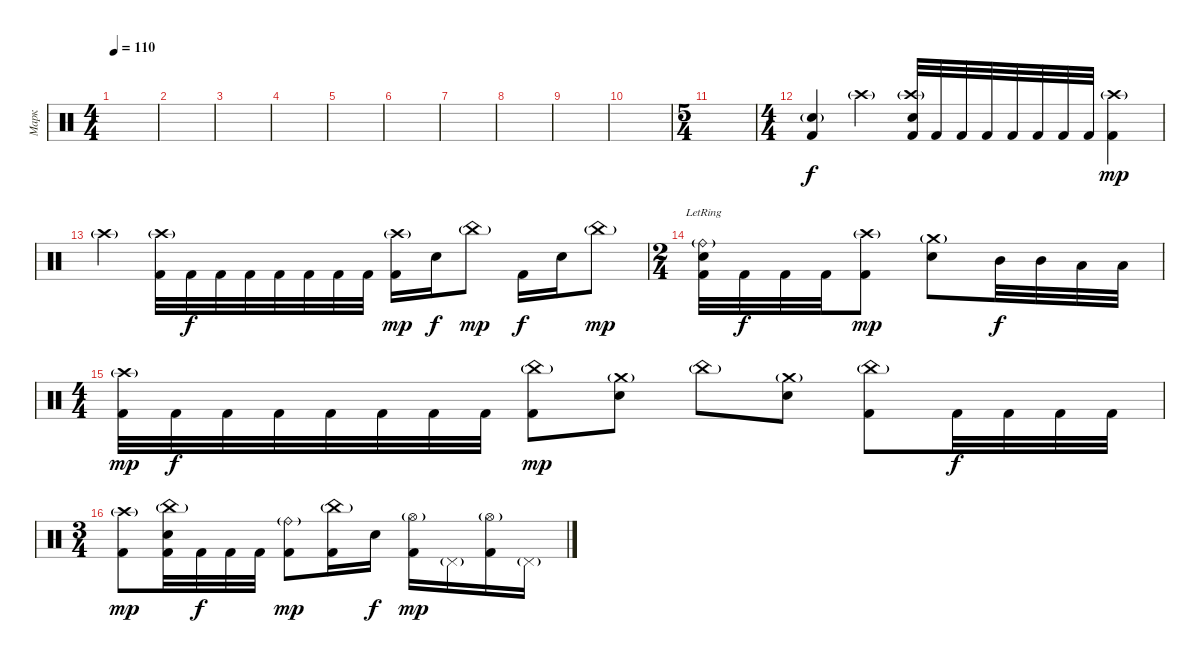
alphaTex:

\track ("Марк " "Марк ") {instrument percussion}
\staff {score}
\articulation defaults
\ts (4 4)
\tempo 110
\clef neutral
\ks c
|
|
|
|
|
|
|
|
|
|
\ts (5 4)
|
\ts (4 4)
("Snare (hit)"{g} "Kick (hit) 2").4 "Crash high (hit)"{g}.4 ("Crash high (hit)"{g} "Electric Snare (hit)" "Kick (hit) 2").32 "Kick (hit) 2".32{dy f} "Kick (hit) 2".32 "Kick (hit) 2".32 "Kick (hit) 2".32 "Kick (hit) 2".32 "Kick (hit) 2".32 "Kick (hit) 2".32 ("Crash high (hit)"{g} "Kick (hit) 2").4{dy mp} |
"Crash high (hit)"{g}.4 ("Crash high (hit)"{g} "Kick (hit) 2").32 "Kick (hit) 2".32{dy f} "Kick (hit) 2".32 "Kick (hit) 2".32 "Kick (hit) 2".32 "Kick (hit) 2".32 "Kick (hit) 2".32 "Kick (hit) 2".32 ("Crash high (hit)"{g} "Kick (hit) 2").16{dy mp} "Electric Snare (hit)".16{dy f} "China (hit)"{g}.8{dy mp} "Kick (hit) 2".16{dy f} "Electric Snare (hit)".16 "China (hit)"{g}.8{dy mp} |
\ts (2 4)
("Ride (bell)"{g lr} "Electric Snare (hit)" "Kick (hit) 2").32 "Kick (hit) 2".32{dy f} "Kick (hit) 2".32 "Kick (hit) 2".32 ("Crash high (hit)"{g} "Kick (hit) 2").8{dy mp} ("Crash medium (hit)"{g} "Electric Snare (hit)").8 "Mid Tom (hit)".32{dy f} "Mid Tom (hit)".32 "Low Tom (hit)".32 "Low Tom (hit)".32 |
\ts (4 4)
("Crash high (hit)"{g} "Kick (hit) 2").32{dy mp} "Kick (hit) 2".32{dy f} "Kick (hit) 2".32 "Kick (hit) 2".32 "Kick (hit) 2".32 "Kick (hit) 2".32 "Kick (hit) 2".32 "Kick (hit) 2".32 ("China (hit)"{g} "Kick (hit) 2").8{dy mp} ("Crash medium (hit)"{g} "Electric Snare (hit)").8 "China (hit)"{g}.8 ("Crash medium (hit)"{g} "Electric Snare (hit)").8 ("China (hit)"{g} "Kick (hit) 2").8 "Kick (hit) 2".32{dy f} "Kick (hit) 2".32 "Kick (hit) 2".32 "Kick (hit) 2".32 |
\ts (3 4)
("Crash high (hit)"{g} "Kick (hit) 2").8{dy mp} ("China (hit)"{g} "Electric Snare (hit)" "Kick (hit) 2").32 "Kick (hit) 2".32{dy f} "Kick (hit) 2".32 "Kick (hit) 2".32 ("Ride (bell)"{g} "Kick (hit) 2").8{dy mp} ("China (hit)"{g} "Kick (hit) 2").16 "Electric Snare (hit)".16{dy f} ("Hi-Hat (open)"{g} "Kick (hit) 2").16{dy mp} "Pedal Hi-Hat (hit)"{g}.16 ("Hi-Hat (open)"{g} "Kick (hit) 2").16 "Pedal Hi-Hat (hit)"{g}.16
